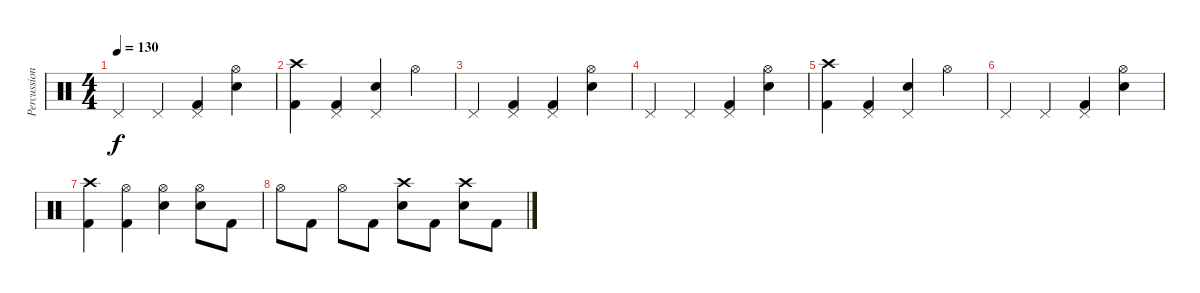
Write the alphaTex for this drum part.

\track ("Percussion" "Percussion") {instrument percussion}
\staff {score}
\articulation defaults
\ts (4 4)
\tempo 130
\clef neutral
\ks c "Pedal Hi-Hat (hit)".4{dy f} "Pedal Hi-Hat (hit)".4
("Pedal Hi-Hat (hit)" "Kick (hit) 2").4 ("Hi-Hat (open)" "Electric Snare (hit)").4 |
("Crash high (hit)" "Kick (hit) 2").4 ("Pedal Hi-Hat (hit)" "Kick (hit) 2").4 ("Pedal Hi-Hat (hit)" "Electric Snare (hit)").4 "Hi-Hat (open)".4 |
"Pedal Hi-Hat (hit)".4 ("Pedal Hi-Hat (hit)" "Kick (hit) 2").4 ("Pedal Hi-Hat (hit)" "Kick (hit) 2").4 ("Hi-Hat (open)" "Electric Snare (hit)").4 |
"Pedal Hi-Hat (hit)".4 "Pedal Hi-Hat (hit)".4 ("Pedal Hi-Hat (hit)" "Kick (hit) 2").4 ("Hi-Hat (open)" "Electric Snare (hit)").4 |
("Crash high (hit)" "Kick (hit) 2").4 ("Pedal Hi-Hat (hit)" "Kick (hit) 2").4 ("Pedal Hi-Hat (hit)" "Electric Snare (hit)").4 "Hi-Hat (open)".4 |
"Pedal Hi-Hat (hit)".4 "Pedal Hi-Hat (hit)".4 ("Pedal Hi-Hat (hit)" "Kick (hit) 2").4 ("Hi-Hat (open)" "Electric Snare (hit)").4 |
("Crash high (hit)" "Kick (hit) 2").4 ("Hi-Hat (open)" "Kick (hit) 2").4 ("Hi-Hat (open)" "Electric Snare (hit)").4 ("Hi-Hat (open)" "Electric Snare (hit)").8 "Kick (hit) 2".8 |
"Hi-Hat (open)".8 "Kick (hit) 2".8 "Hi-Hat (open)".8 "Kick (hit) 2".8 ("Crash high (hit)" "Electric Snare (hit)").8 "Kick (hit) 2".8 ("Crash high (hit)" "Electric Snare (hit)").8 "Kick (hit) 2".8
